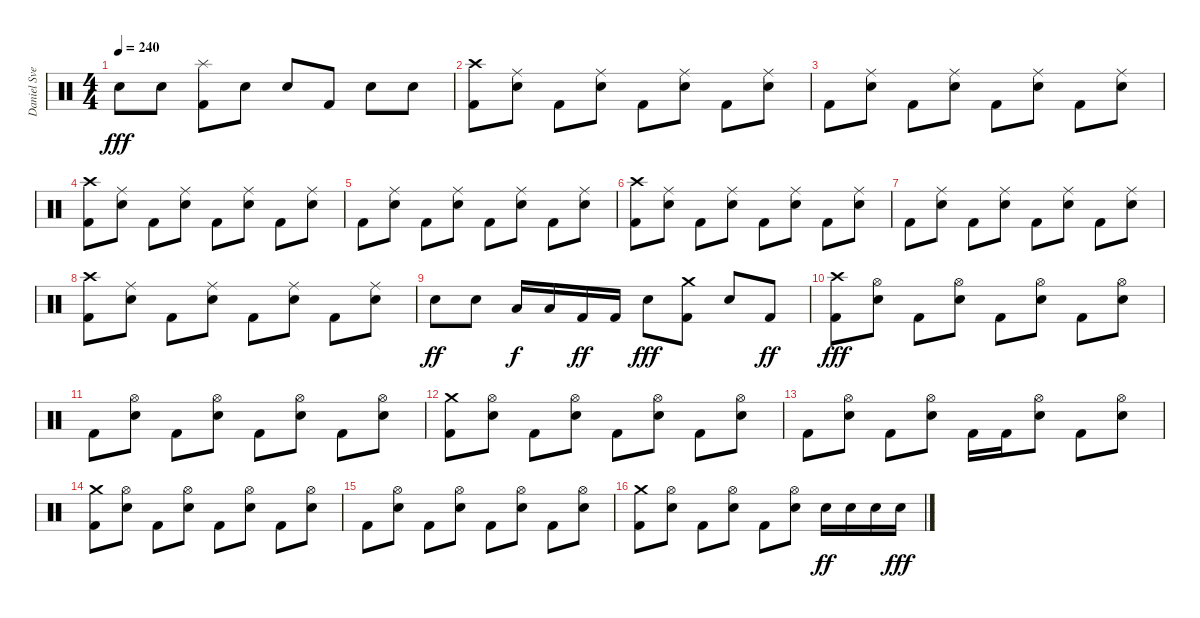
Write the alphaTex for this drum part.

\track ("Daniel Svensson" "Daniel Sve") {instrument percussion}
\staff {score}
\articulation defaults
\ts (4 4)
\tempo 240
\clef neutral
\ks c "Electric Snare (hit)".8{dy fff} "Electric Snare (hit)".8
("Splash (hit)" "Kick (hit) 2").8 "Electric Snare (hit)".8 "Electric Snare (hit)".8 "Kick (hit) 2".8 "Electric Snare (hit)".8 "Electric Snare (hit)".8 |
("Crash high (hit)" "Kick (hit) 2").8 ("Ride (middle)" "Electric Snare (hit)").8 "Kick (hit) 2".8 ("Ride (middle)" "Electric Snare (hit)").8 "Kick (hit) 2".8 ("Ride (middle)" "Electric Snare (hit)").8 "Kick (hit) 2".8 ("Ride (middle)" "Electric Snare (hit)").8 |
"Kick (hit) 2".8 ("Ride (middle)" "Electric Snare (hit)").8 "Kick (hit) 2".8 ("Ride (middle)" "Electric Snare (hit)").8 "Kick (hit) 2".8 ("Ride (middle)" "Electric Snare (hit)").8 "Kick (hit) 2".8 ("Ride (middle)" "Electric Snare (hit)").8 |
("Crash high (hit)" "Kick (hit) 2").8 ("Ride (middle)" "Electric Snare (hit)").8 "Kick (hit) 2".8 ("Ride (middle)" "Electric Snare (hit)").8 "Kick (hit) 2".8 ("Ride (middle)" "Electric Snare (hit)").8 "Kick (hit) 2".8 ("Ride (middle)" "Electric Snare (hit)").8 |
"Kick (hit) 2".8 ("Ride (middle)" "Electric Snare (hit)").8 "Kick (hit) 2".8 ("Ride (middle)" "Electric Snare (hit)").8 "Kick (hit) 2".8 ("Ride (middle)" "Electric Snare (hit)").8 "Kick (hit) 2".8 ("Ride (middle)" "Electric Snare (hit)").8 |
("Crash high (hit)" "Kick (hit) 2").8 ("Ride (middle)" "Electric Snare (hit)").8 "Kick (hit) 2".8 ("Ride (middle)" "Electric Snare (hit)").8 "Kick (hit) 2".8 ("Ride (middle)" "Electric Snare (hit)").8 "Kick (hit) 2".8 ("Ride (middle)" "Electric Snare (hit)").8 |
"Kick (hit) 2".8 ("Ride (middle)" "Electric Snare (hit)").8 "Kick (hit) 2".8 ("Ride (middle)" "Electric Snare (hit)").8 "Kick (hit) 2".8 ("Ride (middle)" "Electric Snare (hit)").8 "Kick (hit) 2".8 ("Ride (middle)" "Electric Snare (hit)").8 |
("Crash high (hit)" "Kick (hit) 2").8 ("Ride (middle)" "Electric Snare (hit)").8 "Kick (hit) 2".8 ("Ride (middle)" "Electric Snare (hit)").8 "Kick (hit) 2".8 ("Ride (middle)" "Electric Snare (hit)").8 "Kick (hit) 2".8 ("Ride (middle)" "Electric Snare (hit)").8 |
"Electric Snare (hit)".8{dy ff} "Electric Snare (hit)".8 "Low Floor Tom (hit)".16{dy f} "Low Floor Tom (hit)".16 "Kick (hit) 2".16{dy ff} "Kick (hit) 2".16 "Electric Snare (hit)".8{dy fff} ("Crash medium (hit)" "Kick (hit) 2").8 "Electric Snare (hit)".8 "Kick (hit) 2".8{dy ff} |
("Crash high (hit)" "Kick (hit) 2").8{dy fff} ("Hi-Hat (open)" "Electric Snare (hit)").8 "Kick (hit) 2".8 ("Hi-Hat (open)" "Electric Snare (hit)").8 "Kick (hit) 2".8 ("Hi-Hat (open)" "Electric Snare (hit)").8 "Kick (hit) 2".8 ("Hi-Hat (open)" "Electric Snare (hit)").8 |
"Kick (hit) 2".8 ("Hi-Hat (open)" "Electric Snare (hit)").8 "Kick (hit) 2".8 ("Hi-Hat (open)" "Electric Snare (hit)").8 "Kick (hit) 2".8 ("Hi-Hat (open)" "Electric Snare (hit)").8 "Kick (hit) 2".8 ("Hi-Hat (open)" "Electric Snare (hit)").8 |
("Crash medium (hit)" "Kick (hit) 2").8 ("Hi-Hat (open)" "Electric Snare (hit)").8 "Kick (hit) 2".8 ("Hi-Hat (open)" "Electric Snare (hit)").8 "Kick (hit) 2".8 ("Hi-Hat (open)" "Electric Snare (hit)").8 "Kick (hit) 2".8 ("Hi-Hat (open)" "Electric Snare (hit)").8 |
"Kick (hit) 2".8 ("Hi-Hat (open)" "Electric Snare (hit)").8 "Kick (hit) 2".8 ("Hi-Hat (open)" "Electric Snare (hit)").8 "Kick (hit) 2".16 "Kick (hit) 2".16 ("Hi-Hat (open)" "Electric Snare (hit)").8 "Kick (hit) 2".8 ("Hi-Hat (open)" "Electric Snare (hit)").8 |
("Crash medium (hit)" "Kick (hit) 2").8 ("Hi-Hat (open)" "Electric Snare (hit)").8 "Kick (hit) 2".8 ("Hi-Hat (open)" "Electric Snare (hit)").8 "Kick (hit) 2".8 ("Hi-Hat (open)" "Electric Snare (hit)").8 "Kick (hit) 2".8 ("Hi-Hat (open)" "Electric Snare (hit)").8 |
"Kick (hit) 2".8 ("Hi-Hat (open)" "Electric Snare (hit)").8 "Kick (hit) 2".8 ("Hi-Hat (open)" "Electric Snare (hit)").8 "Kick (hit) 2".8 ("Hi-Hat (open)" "Electric Snare (hit)").8 "Kick (hit) 2".8 ("Hi-Hat (open)" "Electric Snare (hit)").8 |
("Crash medium (hit)" "Kick (hit) 2").8 ("Hi-Hat (open)" "Electric Snare (hit)").8 "Kick (hit) 2".8 ("Hi-Hat (open)" "Electric Snare (hit)").8 "Kick (hit) 2".8 ("Hi-Hat (open)" "Electric Snare (hit)").8 "Electric Snare (hit)".16{dy ff} "Electric Snare (hit)".16 "Electric Snare (hit)".16 "Electric Snare (hit)".16{dy fff}
